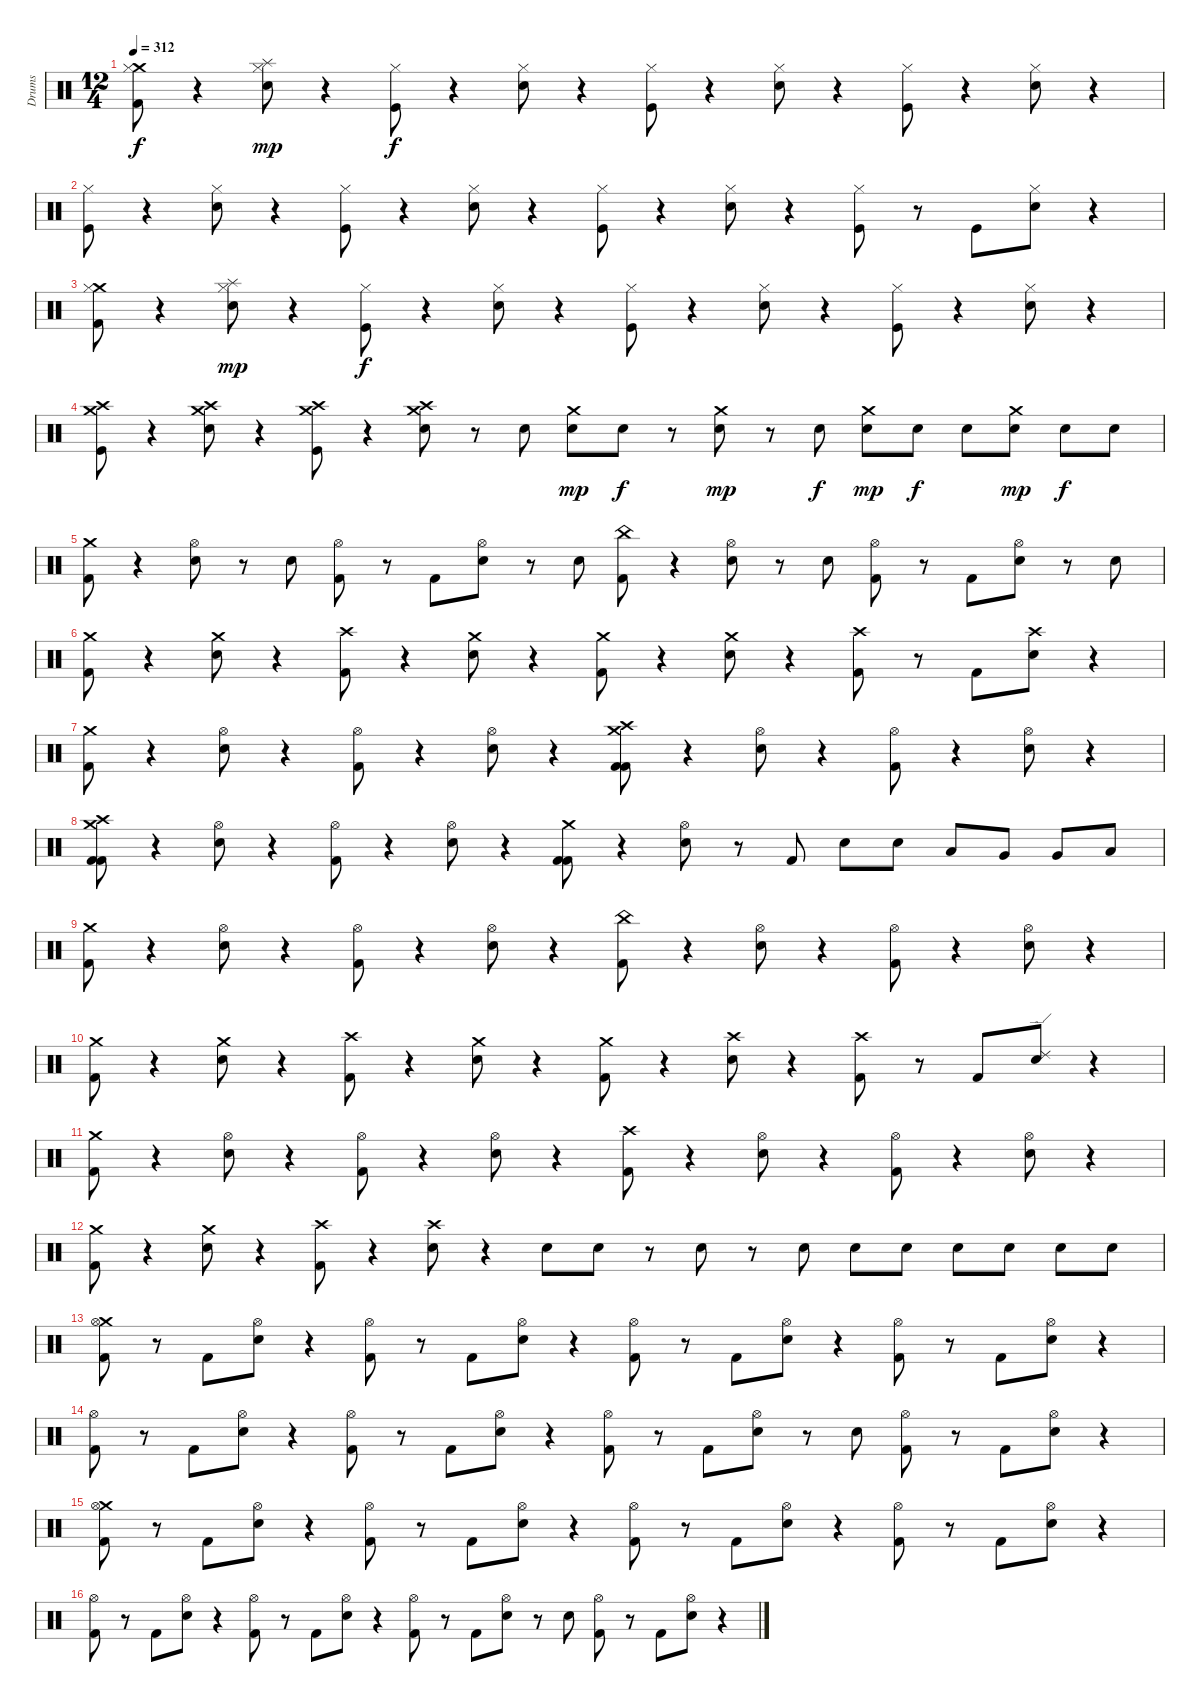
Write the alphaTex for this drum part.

\track ("Drums" "Drums") {instrument percussion}
\staff {score}
\articulation defaults
\ts (12 4)
\tempo 312
\clef neutral
\ks c
("Crash medium (hit)" "Hi-Hat (closed)" "Kick (hit) 2").8{dy f} r.4 ("Splash (hit)" "Hi-Hat (closed)" "Electric Snare (hit)").8{dy mp} r.4 ("Hi-Hat (closed)" "Kick (hit)").8{dy f} r.4 ("Hi-Hat (closed)" "Electric Snare (hit)").8 r.4 ("Kick (hit)" "Hi-Hat (closed)").8 r.4 ("Electric Snare (hit)" "Hi-Hat (closed)").8 r.4 ("Hi-Hat (closed)" "Kick (hit)").8 r.4 ("Hi-Hat (closed)" "Electric Snare (hit)").8 r.4 |
("Kick (hit)" "Hi-Hat (closed)").8 r.4 ("Electric Snare (hit)" "Hi-Hat (closed)").8 r.4 ("Hi-Hat (closed)" "Kick (hit)").8 r.4 ("Hi-Hat (closed)" "Electric Snare (hit)").8 r.4 ("Kick (hit)" "Hi-Hat (closed)").8 r.4 ("Electric Snare (hit)" "Hi-Hat (closed)").8 r.4 ("Hi-Hat (closed)" "Kick (hit)").8 r.8 "Kick (hit)".8 ("Hi-Hat (closed)" "Electric Snare (hit)").8 r.4 |
("Crash medium (hit)" "Hi-Hat (closed)" "Kick (hit) 2").8 r.4 ("Hi-Hat (closed)" "Electric Snare (hit)" "Splash (hit)").8{dy mp} r.4 ("Hi-Hat (closed)" "Kick (hit)").8{dy f} r.4 ("Hi-Hat (closed)" "Electric Snare (hit)").8 r.4 ("Kick (hit)" "Hi-Hat (closed)").8 r.4 ("Electric Snare (hit)" "Hi-Hat (closed)").8 r.4 ("Hi-Hat (closed)" "Kick (hit)").8 r.4 ("Hi-Hat (closed)" "Electric Snare (hit)").8 r.4 |
("Kick (hit)" "Crash high (hit)" "Crash medium (hit)").8 r.4 ("Electric Snare (hit)" "Crash high (hit)" "Crash medium (hit)").8 r.4 ("Crash high (hit)" "Kick (hit)" "Crash medium (hit)").8 r.4 ("Crash high (hit)" "Electric Snare (hit)" "Crash medium (hit)").8 r.8 "Electric Snare (hit)".8 ("Electric Snare (hit)" "Crash medium (hit)").8{dy mp} "Electric Snare (hit)".8{dy f} r.8 ("Electric Snare (hit)" "Crash medium (hit)").8{dy mp} r.8 "Electric Snare (hit)".8{dy f} ("Electric Snare (hit)" "Crash medium (hit)").8{dy mp} "Electric Snare (hit)".8{dy f} "Electric Snare (hit)".8 ("Electric Snare (hit)" "Crash medium (hit)").8{dy mp} "Electric Snare (hit)".8{dy f} "Electric Snare (hit)".8 |
("Kick (hit) 2" "Crash medium (hit)").8 r.4 ("Hi-Hat (open)" "Electric Snare (hit)").8 r.8 "Electric Snare (hit)".8 ("Kick (hit) 2" "Hi-Hat (open)").8 r.8 "Kick (hit) 2".8 ("Electric Snare (hit)" "Hi-Hat (open)").8 r.8 "Electric Snare (hit)".8 ("Kick (hit) 2" "China (hit)").8 r.4 ("Hi-Hat (open)" "Electric Snare (hit)").8 r.8 "Electric Snare (hit)".8 ("Kick (hit) 2" "Hi-Hat (open)").8 r.8 "Kick (hit) 2".8 ("Electric Snare (hit)" "Hi-Hat (open)").8 r.8 "Electric Snare (hit)".8 |
("Kick (hit) 2" "Crash medium (hit)").8 r.4 ("Electric Snare (hit)" "Crash medium (hit)").8 r.4 ("Kick (hit) 2" "Crash high (hit)").8 r.4 ("Electric Snare (hit)" "Crash medium (hit)").8 r.4 ("Kick (hit) 2" "Crash medium (hit)").8 r.4 ("Electric Snare (hit)" "Crash medium (hit)").8 r.4 ("Kick (hit) 2" "Crash high (hit)").8 r.8 "Kick (hit) 2".8 ("Electric Snare (hit)" "Crash high (hit)").8 r.4 |
("Kick (hit) 2" "Crash medium (hit)").8 r.4 ("Hi-Hat (open)" "Electric Snare (hit)").8 r.4 ("Kick (hit) 2" "Hi-Hat (open)").8 r.4 ("Electric Snare (hit)" "Hi-Hat (open)").8 r.4 ("Kick (hit) 2" "Crash high (hit)" "Kick (hit) 2" "Crash medium (hit)").8 r.4 ("Hi-Hat (open)" "Electric Snare (hit)").8 r.4 ("Kick (hit) 2" "Hi-Hat (open)").8 r.4 ("Electric Snare (hit)" "Hi-Hat (open)").8 r.4 |
("Kick (hit) 2" "Crash high (hit)" "Kick (hit) 2" "Crash medium (hit)").8 r.4 ("Hi-Hat (open)" "Electric Snare (hit)").8 r.4 ("Kick (hit) 2" "Hi-Hat (open)").8 r.4 ("Electric Snare (hit)" "Hi-Hat (open)").8 r.4 ("Kick (hit) 2" "Kick (hit) 2" "Crash medium (hit)").8 r.4 ("Hi-Hat (open)" "Electric Snare (hit)").8 r.8 "Kick (hit) 2".8 "Electric Snare (hit)".8 "Electric Snare (hit)".8 "Low Tom (hit)".8 "Very Low Tom (hit)".8 "Very Low Tom (hit)".8 "Low Floor Tom (hit)".8 |
("Kick (hit) 2" "Crash medium (hit)").8 r.4 ("Hi-Hat (open)" "Electric Snare (hit)").8 r.4 ("Kick (hit) 2" "Hi-Hat (open)").8 r.4 ("Electric Snare (hit)" "Hi-Hat (open)").8 r.4 ("Kick (hit) 2" "China (hit)").8 r.4 ("Hi-Hat (open)" "Electric Snare (hit)").8 r.4 ("Kick (hit) 2" "Hi-Hat (open)").8 r.4 ("Electric Snare (hit)" "Hi-Hat (open)").8 r.4 |
("Kick (hit) 2" "Crash medium (hit)").8 r.4 ("Electric Snare (hit)" "Crash medium (hit)").8 r.4 ("Kick (hit) 2" "Crash high (hit)").8 r.4 ("Electric Snare (hit)" "Crash medium (hit)").8 r.4 ("Kick (hit) 2" "Crash medium (hit)").8 r.4 ("Electric Snare (hit)" "Crash high (hit)").8 r.4 ("Kick (hit) 2" "Crash high (hit)").8 r.8 "Kick (hit) 2".8 ("Electric Snare (hit)" "Ride (edge) 2").8 r.4 |
("Kick (hit) 2" "Crash medium (hit)").8 r.4 ("Hi-Hat (open)" "Electric Snare (hit)").8 r.4 ("Kick (hit) 2" "Hi-Hat (open)").8 r.4 ("Electric Snare (hit)" "Hi-Hat (open)").8 r.4 ("Kick (hit) 2" "Crash high (hit)").8 r.4 ("Hi-Hat (open)" "Electric Snare (hit)").8 r.4 ("Kick (hit) 2" "Hi-Hat (open)").8 r.4 ("Electric Snare (hit)" "Hi-Hat (open)").8 r.4 |
("Kick (hit) 2" "Crash medium (hit)").8 r.4 ("Electric Snare (hit)" "Crash medium (hit)").8 r.4 ("Kick (hit) 2" "Crash high (hit)").8 r.4 ("Electric Snare (hit)" "Crash high (hit)").8 r.4 "Electric Snare (hit)".8 "Electric Snare (hit)".8 r.8 "Electric Snare (hit)".8 r.8 "Electric Snare (hit)".8 "Electric Snare (hit)".8 "Electric Snare (hit)".8 "Electric Snare (hit)".8 "Electric Snare (hit)".8 "Electric Snare (hit)".8 "Electric Snare (hit)".8 |
("Crash medium (hit)" "Kick (hit) 2" "Hi-Hat (open)").8 r.8 "Kick (hit) 2".8 ("Hi-Hat (open)" "Electric Snare (hit)").8 r.4 ("Hi-Hat (open)" "Kick (hit) 2").8 r.8 "Kick (hit) 2".8 ("Electric Snare (hit)" "Hi-Hat (open)").8 r.4 ("Hi-Hat (open)" "Kick (hit) 2").8 r.8 "Kick (hit) 2".8 ("Hi-Hat (open)" "Electric Snare (hit)").8 r.4 ("Hi-Hat (open)" "Kick (hit) 2").8 r.8 "Kick (hit) 2".8 ("Hi-Hat (open)" "Electric Snare (hit)").8 r.4 |
("Hi-Hat (open)" "Kick (hit) 2").8 r.8 "Kick (hit) 2".8 ("Hi-Hat (open)" "Electric Snare (hit)").8 r.4 ("Hi-Hat (open)" "Kick (hit) 2").8 r.8 "Kick (hit) 2".8 ("Hi-Hat (open)" "Electric Snare (hit)").8 r.4 ("Hi-Hat (open)" "Kick (hit) 2").8 r.8 "Kick (hit) 2".8 ("Hi-Hat (open)" "Electric Snare (hit)").8 r.8 "Electric Snare (hit)".8 ("Hi-Hat (open)" "Kick (hit) 2").8 r.8 "Kick (hit) 2".8 ("Hi-Hat (open)" "Electric Snare (hit)").8 r.4 |
("Crash medium (hit)" "Kick (hit) 2" "Hi-Hat (open)").8 r.8 "Kick (hit) 2".8 ("Hi-Hat (open)" "Electric Snare (hit)").8 r.4 ("Hi-Hat (open)" "Kick (hit) 2").8 r.8 "Kick (hit) 2".8 ("Electric Snare (hit)" "Hi-Hat (open)").8 r.4 ("Hi-Hat (open)" "Kick (hit) 2").8 r.8 "Kick (hit) 2".8 ("Hi-Hat (open)" "Electric Snare (hit)").8 r.4 ("Hi-Hat (open)" "Kick (hit) 2").8 r.8 "Kick (hit) 2".8 ("Hi-Hat (open)" "Electric Snare (hit)").8 r.4 |
("Hi-Hat (open)" "Kick (hit) 2").8 r.8 "Kick (hit) 2".8 ("Hi-Hat (open)" "Electric Snare (hit)").8 r.4 ("Hi-Hat (open)" "Kick (hit) 2").8 r.8 "Kick (hit) 2".8 ("Hi-Hat (open)" "Electric Snare (hit)").8 r.4 ("Hi-Hat (open)" "Kick (hit) 2").8 r.8 "Kick (hit) 2".8 ("Hi-Hat (open)" "Electric Snare (hit)").8 r.8 "Electric Snare (hit)".8 ("Hi-Hat (open)" "Kick (hit) 2").8 r.8 "Kick (hit) 2".8 ("Hi-Hat (open)" "Electric Snare (hit)").8 r.4
